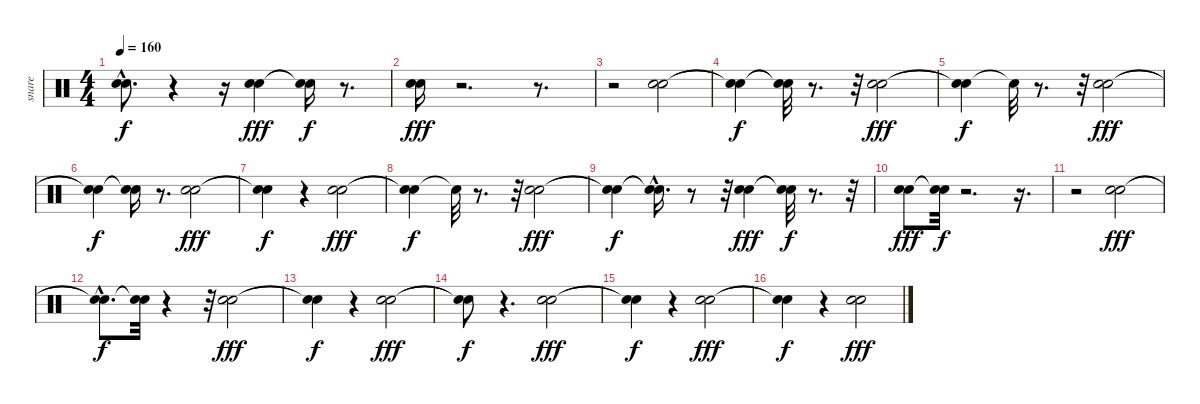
\track ("snare" "snare") {instrument percussion}
\staff {score}
\articulation defaults
\ts (4 4)
\tempo 160
\clef neutral
\ks c
("Snare (hit)"{t} "Snare (hit)"{hac t}).8{d dy f} r.4 r.16 ("Snare (hit) 2" "Electric Snare (hit)").4{dy fff} ("Snare (hit)"{t} "Snare (hit)"{t}).16{dy f} r.8{d} |
("Electric Snare (hit)" "Snare (hit) 2").16{dy fff} r.2{d} r.8{d} |
r.2 ("Electric Snare (hit)" "Snare (hit) 2").2 |
("Snare (hit)"{t} "Snare (hit)"{t}).4{dy f} ("Snare (hit)"{t} "Snare (hit)"{t}).32 r.8{d} r.32 ("Snare (hit) 2" "Electric Snare (hit)").2{dy fff} |
("Snare (hit)"{t} "Snare (hit)"{t}).4{dy f} "Snare (hit)"{t}.32 r.8{d} r.32 ("Snare (hit) 2" "Electric Snare (hit)").2{dy fff} |
("Snare (hit)"{t} "Snare (hit)"{t}).4{dy f} ("Snare (hit)"{t} "Snare (hit)"{t}).16 r.8{d} ("Snare (hit) 2" "Electric Snare (hit)").2{dy fff} |
("Snare (hit)"{t} "Snare (hit)"{t}).4{dy f} r.4 ("Snare (hit) 2" "Electric Snare (hit)").2{dy fff} |
("Snare (hit)"{t} "Snare (hit)"{t}).4{dy f} "Snare (hit)"{t}.32 r.8{d} r.32 ("Electric Snare (hit)" "Snare (hit) 2").2{dy fff} |
("Snare (hit)"{t} "Snare (hit)"{t}).4{dy f} ("Snare (hit)"{t} "Snare (hit)"{hac t}).16{d} r.8 r.32 ("Snare (hit) 2" "Electric Snare (hit)").4{dy fff} ("Snare (hit)"{t} "Snare (hit)"{t}).32{dy f} r.8{d} r.32 |
("Electric Snare (hit)" "Snare (hit) 2").8{dy fff} ("Snare (hit)"{t} "Snare (hit)"{t}).32{dy f} r.2{d} r.16{d} |
r.2 ("Electric Snare (hit)" "Snare (hit) 2").2{dy fff} |
("Snare (hit)"{hac t} "Snare (hit)"{hac t}).8{d dy f} ("Snare (hit)"{t} "Snare (hit)"{t}).32 r.4 r.32 ("Snare (hit) 2" "Electric Snare (hit)").2{dy fff} |
("Snare (hit)"{t} "Snare (hit)"{t}).4{dy f} r.4 ("Snare (hit) 2" "Electric Snare (hit)").2{dy fff} |
("Snare (hit)"{t} "Snare (hit)"{t}).8{dy f} r.4{d} ("Snare (hit) 2" "Electric Snare (hit)").2{dy fff} |
("Snare (hit)"{t} "Snare (hit)"{t}).4{dy f} r.4 ("Snare (hit) 2" "Electric Snare (hit)").2{dy fff} |
("Snare (hit)"{t} "Snare (hit)"{t}).4{dy f} r.4 ("Electric Snare (hit)" "Snare (hit) 2").2{dy fff}
